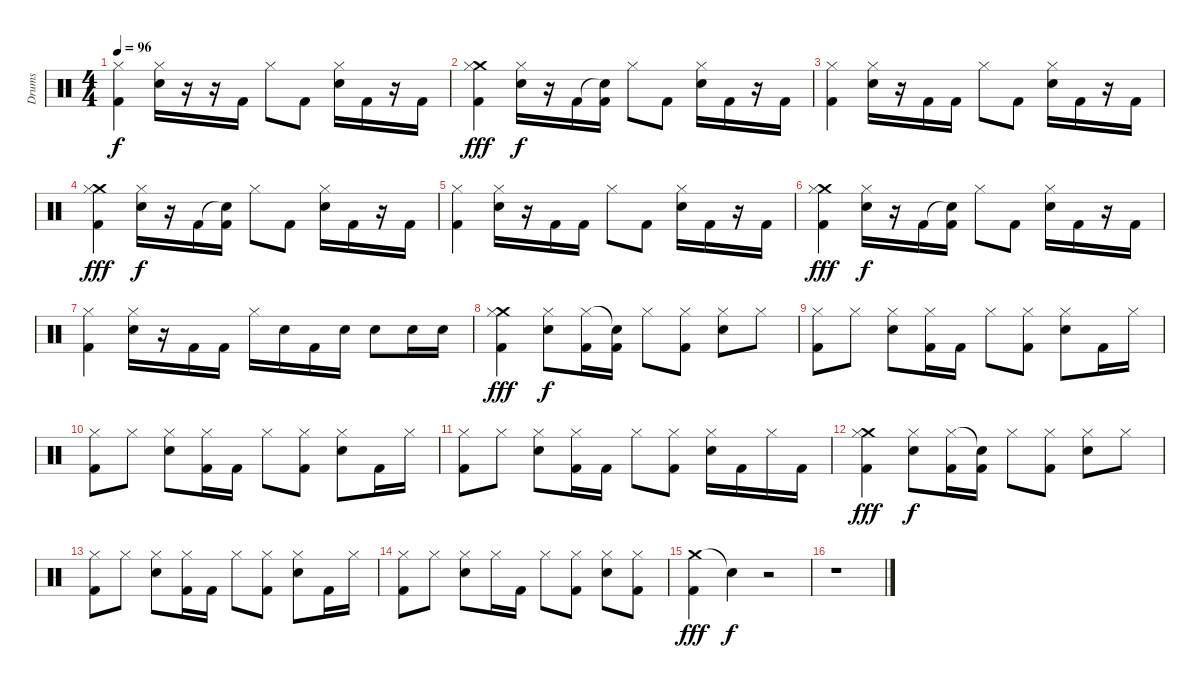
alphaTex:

\track ("Drums" "Drums") {instrument percussion}
\staff {score}
\articulation defaults
\ts (4 4)
\tempo 96
\clef neutral
\ks c
("Hi-Hat (closed)" "Kick (hit) 2").4{dy f} ("Hi-Hat (closed)" "Snare (hit) 2").16 r.16 r.16 "Kick (hit) 2".16 "Hi-Hat (closed)".8 "Kick (hit) 2".8 ("Hi-Hat (closed)" "Snare (hit) 2").16 "Kick (hit) 2".16 r.16 "Kick (hit) 2".16 |
("Crash medium (hit)" "Hi-Hat (closed)" "Kick (hit) 2").4{dy fff} ("Hi-Hat (closed)" "Snare (hit) 2").16{dy f} r.16 "Kick (hit) 2".16 ("Snare (hit)"{t} "Kick (hit) 2").16 "Hi-Hat (closed)".8 "Kick (hit) 2".8 ("Hi-Hat (closed)" "Snare (hit) 2").16 "Kick (hit) 2".16 r.16 "Kick (hit) 2".16 |
("Hi-Hat (closed)" "Kick (hit) 2").4 ("Hi-Hat (closed)" "Snare (hit) 2").16 r.16 "Kick (hit) 2".16 "Kick (hit) 2".16 "Hi-Hat (closed)".8 "Kick (hit) 2".8 ("Hi-Hat (closed)" "Snare (hit) 2").16 "Kick (hit) 2".16 r.16 "Kick (hit) 2".16 |
("Crash medium (hit)" "Hi-Hat (closed)" "Kick (hit) 2").4{dy fff} ("Hi-Hat (closed)" "Snare (hit) 2").16{dy f} r.16 "Kick (hit) 2".16 ("Snare (hit)"{t} "Kick (hit) 2").16 "Hi-Hat (closed)".8 "Kick (hit) 2".8 ("Hi-Hat (closed)" "Snare (hit) 2").16 "Kick (hit) 2".16 r.16 "Kick (hit) 2".16 |
("Hi-Hat (closed)" "Kick (hit) 2").4 ("Hi-Hat (closed)" "Snare (hit) 2").16 r.16 "Kick (hit) 2".16 "Kick (hit) 2".16 "Hi-Hat (closed)".8 "Kick (hit) 2".8 ("Hi-Hat (closed)" "Snare (hit) 2").16 "Kick (hit) 2".16 r.16 "Kick (hit) 2".16 |
("Crash medium (hit)" "Hi-Hat (closed)" "Kick (hit) 2").4{dy fff} ("Hi-Hat (closed)" "Snare (hit) 2").16{dy f} r.16 "Kick (hit) 2".16 ("Snare (hit)"{t} "Kick (hit) 2").16 "Hi-Hat (closed)".8 "Kick (hit) 2".8 ("Hi-Hat (closed)" "Snare (hit) 2").16 "Kick (hit) 2".16 r.16 "Kick (hit) 2".16 |
("Hi-Hat (closed)" "Kick (hit) 2").4 ("Hi-Hat (closed)" "Snare (hit) 2").16 r.16 "Kick (hit) 2".16 "Kick (hit) 2".16 "Hi-Hat (closed)".16 "Snare (hit) 2".16 "Kick (hit) 2".16 "Snare (hit) 2".16 "Snare (hit) 2".8 "Snare (hit) 2".16 "Snare (hit) 2".16 |
("Crash medium (hit)" "Hi-Hat (closed)" "Kick (hit) 2").4{dy fff} ("Hi-Hat (closed)" "Snare (hit) 2").8{dy f} ("Hi-Hat (closed)" "Kick (hit) 2").16 ("Snare (hit)"{t} "Kick (hit) 2").16 "Hi-Hat (closed)".8 ("Hi-Hat (closed)" "Kick (hit) 2").8 ("Hi-Hat (closed)" "Snare (hit) 2").8 "Hi-Hat (closed)".8 |
("Hi-Hat (closed)" "Kick (hit) 2").8 "Hi-Hat (closed)".8 ("Hi-Hat (closed)" "Snare (hit) 2").8 ("Hi-Hat (closed)" "Kick (hit) 2").16 "Kick (hit) 2".16 "Hi-Hat (closed)".8 ("Hi-Hat (closed)" "Kick (hit) 2").8 ("Hi-Hat (closed)" "Snare (hit) 2").8 "Kick (hit) 2".16 "Hi-Hat (closed)".16 |
("Hi-Hat (closed)" "Kick (hit) 2").8 "Hi-Hat (closed)".8 ("Hi-Hat (closed)" "Snare (hit) 2").8 ("Hi-Hat (closed)" "Kick (hit) 2").16 "Kick (hit) 2".16 "Hi-Hat (closed)".8 ("Hi-Hat (closed)" "Kick (hit) 2").8 ("Hi-Hat (closed)" "Snare (hit) 2").8 "Kick (hit) 2".16 "Hi-Hat (closed)".16 |
("Hi-Hat (closed)" "Kick (hit) 2").8 "Hi-Hat (closed)".8 ("Hi-Hat (closed)" "Snare (hit) 2").8 ("Hi-Hat (closed)" "Kick (hit) 2").16 "Kick (hit) 2".16 "Hi-Hat (closed)".8 ("Hi-Hat (closed)" "Kick (hit) 2").8 ("Hi-Hat (closed)" "Snare (hit) 2").16 "Kick (hit) 2".16 "Hi-Hat (closed)".16 "Kick (hit) 2".16 |
("Crash medium (hit)" "Hi-Hat (closed)" "Kick (hit) 2").4{dy fff} ("Hi-Hat (closed)" "Snare (hit) 2").8{dy f} ("Hi-Hat (closed)" "Kick (hit) 2").16 ("Snare (hit)"{t} "Kick (hit) 2").16 "Hi-Hat (closed)".8 ("Hi-Hat (closed)" "Kick (hit) 2").8 ("Hi-Hat (closed)" "Snare (hit) 2").8 "Hi-Hat (closed)".8 |
("Hi-Hat (closed)" "Kick (hit) 2").8 "Hi-Hat (closed)".8 ("Hi-Hat (closed)" "Snare (hit) 2").8 ("Hi-Hat (closed)" "Kick (hit) 2").16 "Kick (hit) 2".16 "Hi-Hat (closed)".8 ("Hi-Hat (closed)" "Kick (hit) 2").8 ("Hi-Hat (closed)" "Snare (hit) 2").8 "Kick (hit) 2".16 "Hi-Hat (closed)".16 |
("Hi-Hat (closed)" "Kick (hit) 2").8 "Hi-Hat (closed)".8 ("Hi-Hat (closed)" "Snare (hit) 2").8 "Hi-Hat (closed)".16 "Kick (hit) 2".16 "Hi-Hat (closed)".8 ("Hi-Hat (closed)" "Kick (hit) 2").8 ("Hi-Hat (closed)" "Snare (hit) 2").8 ("Hi-Hat (closed)" "Kick (hit) 2").8 |
("Crash medium (hit)" "Kick (hit) 2").4{dy fff} "Snare (hit)"{t}.4{dy f} r.2 |
r.1
